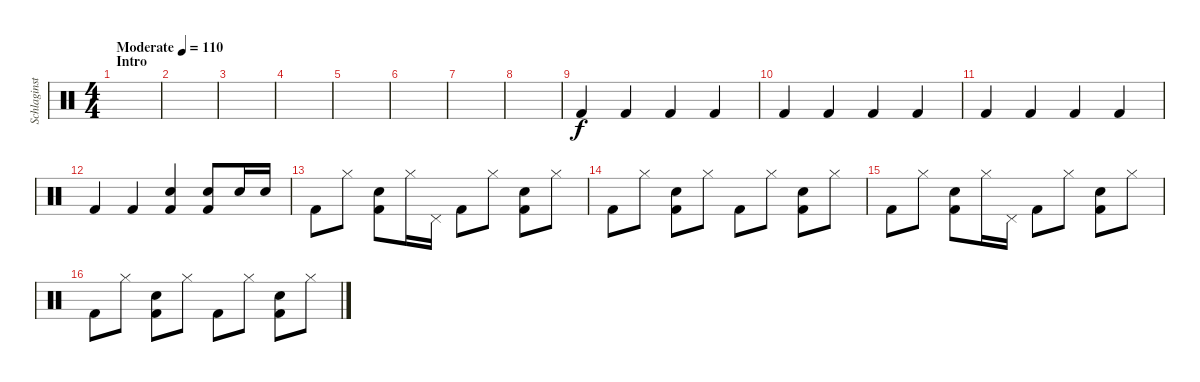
\track ("Schlaginstrumente - Auswahl" "Schlaginst") {instrument percussion}
\staff {score}
\articulation defaults
\ts (4 4)
\section ("" "Intro")
\tempo (110 "Moderate")
\clef neutral
\ks c
|
|
|
|
|
|
|
|
"Kick (hit) 2".4 "Kick (hit) 2".4 "Kick (hit) 2".4 "Kick (hit) 2".4 |
"Kick (hit) 2".4 "Kick (hit) 2".4 "Kick (hit) 2".4 "Kick (hit) 2".4 |
"Kick (hit) 2".4 "Kick (hit) 2".4 "Kick (hit) 2".4 "Kick (hit) 2".4 |
"Kick (hit) 2".4 "Kick (hit) 2".4 ("Snare (hit) 2" "Kick (hit) 2").4 ("Snare (hit) 2" "Kick (hit) 2").8 "Snare (hit) 2".16 "Snare (hit) 2".16 |
"Kick (hit) 2".8 "Hi-Hat (closed)".8 ("Snare (hit) 2" "Kick (hit) 2").8 "Hi-Hat (closed)".16 "Pedal Hi-Hat (hit)".16 "Kick (hit) 2".8 "Hi-Hat (closed)".8 ("Snare (hit) 2" "Kick (hit) 2").8 "Hi-Hat (closed)".8 |
"Kick (hit) 2".8 "Hi-Hat (closed)".8 ("Snare (hit) 2" "Kick (hit) 2").8 "Hi-Hat (closed)".8 "Kick (hit) 2".8 "Hi-Hat (closed)".8 ("Snare (hit) 2" "Kick (hit) 2").8 "Hi-Hat (closed)".8 |
"Kick (hit) 2".8 "Hi-Hat (closed)".8 ("Snare (hit) 2" "Kick (hit) 2").8 "Hi-Hat (closed)".16 "Pedal Hi-Hat (hit)".16 "Kick (hit) 2".8 "Hi-Hat (closed)".8 ("Snare (hit) 2" "Kick (hit) 2").8 "Hi-Hat (closed)".8 |
"Kick (hit) 2".8 "Hi-Hat (closed)".8 ("Snare (hit) 2" "Kick (hit) 2").8 "Hi-Hat (closed)".8 "Kick (hit) 2".8 "Hi-Hat (closed)".8 ("Snare (hit) 2" "Kick (hit) 2").8 "Hi-Hat (closed)".8
